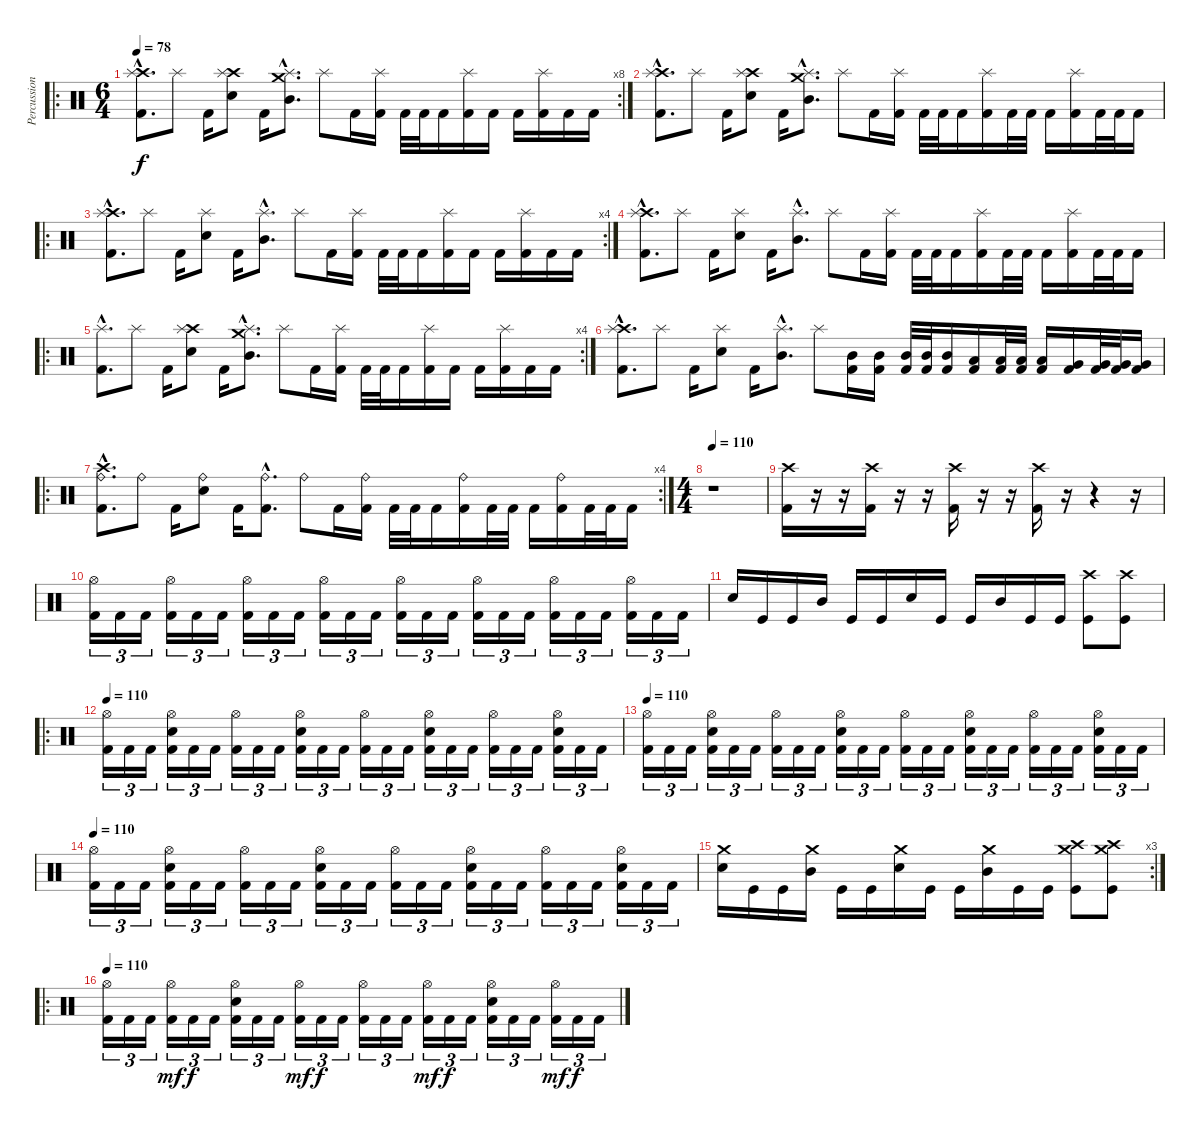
\track ("Percussion" "Percussion") {instrument percussion}
\staff {score}
\articulation defaults
\ro
\rc 8
\ts (6 4)
\tempo 78
\clef neutral
\ks c
("Crash high (hit)"{hac} "Splash (hit)"{hac} "Kick (hit) 2"{hac}).8{d dy f} "Splash (hit)".8 "Kick (hit) 2".16 ("Crash high (hit)" "Splash (hit)" "Electric Snare (hit)").8 "Kick (hit) 2".16 ("Crash medium (hit)"{hac} "Splash (hit)"{hac} "Mid Tom (hit)"{hac}).8{d} "Splash (hit)".8 "Kick (hit) 2".16 ("Splash (hit)" "Kick (hit) 2").16 "Kick (hit) 2".32 "Kick (hit) 2".32 "Kick (hit) 2".16 ("Splash (hit)" "Kick (hit) 2").16 "Kick (hit) 2".16 "Kick (hit) 2".16 ("Splash (hit)" "Kick (hit) 2").16 "Kick (hit) 2".16 "Kick (hit) 2".16 |
("Crash high (hit)"{hac} "Splash (hit)"{hac} "Kick (hit) 2"{hac}).8{d} "Splash (hit)".8 "Kick (hit) 2".16 ("Crash high (hit)" "Splash (hit)" "Electric Snare (hit)").8 "Kick (hit) 2".16 ("Crash medium (hit)"{hac} "Splash (hit)"{hac} "Mid Tom (hit)"{hac}).8{d} "Splash (hit)".8 "Kick (hit) 2".16 ("Splash (hit)" "Kick (hit) 2").16 "Kick (hit) 2".32 "Kick (hit) 2".32 "Kick (hit) 2".16 ("Splash (hit)" "Kick (hit) 2").16 "Kick (hit) 2".32 "Kick (hit) 2".32 "Kick (hit) 2".16 ("Splash (hit)" "Kick (hit) 2").16 "Kick (hit) 2".32 "Kick (hit) 2".32 "Kick (hit) 2".16 |
\ro
\rc 4
("Crash high (hit)"{hac} "Splash (hit)"{hac} "Kick (hit) 2"{hac}).8{d} "Splash (hit)".8 "Kick (hit) 2".16 ("Splash (hit)" "Electric Snare (hit)").8 "Kick (hit) 2".16 ("Splash (hit)"{hac} "Mid Tom (hit)"{hac}).8{d} "Splash (hit)".8 "Kick (hit) 2".16 ("Splash (hit)" "Kick (hit) 2").16 "Kick (hit) 2".32 "Kick (hit) 2".32 "Kick (hit) 2".16 ("Splash (hit)" "Kick (hit) 2").16 "Kick (hit) 2".16 "Kick (hit) 2".16 ("Splash (hit)" "Kick (hit) 2").16 "Kick (hit) 2".16 "Kick (hit) 2".16 |
("Crash high (hit)"{hac} "Splash (hit)"{hac} "Kick (hit) 2"{hac}).8{d} "Splash (hit)".8 "Kick (hit) 2".16 ("Splash (hit)" "Electric Snare (hit)").8 "Kick (hit) 2".16 ("Splash (hit)"{hac} "Mid Tom (hit)"{hac}).8{d} "Splash (hit)".8 "Kick (hit) 2".16 ("Splash (hit)" "Kick (hit) 2").16 "Kick (hit) 2".32 "Kick (hit) 2".32 "Kick (hit) 2".16 ("Splash (hit)" "Kick (hit) 2").16 "Kick (hit) 2".32 "Kick (hit) 2".32 "Kick (hit) 2".16 ("Splash (hit)" "Kick (hit) 2").16 "Kick (hit) 2".32 "Kick (hit) 2".32 "Kick (hit) 2".16 |
\ro
\rc 4
("Splash (hit)"{hac} "Kick (hit) 2"{hac}).8{d} "Splash (hit)".8 "Kick (hit) 2".16 ("Crash high (hit)" "Splash (hit)" "Electric Snare (hit)").8 "Kick (hit) 2".16 ("Crash medium (hit)"{hac} "Splash (hit)"{hac} "Mid Tom (hit)"{hac}).8{d} "Splash (hit)".8 "Kick (hit) 2".16 ("Splash (hit)" "Kick (hit) 2").16 "Kick (hit) 2".32 "Kick (hit) 2".32 "Kick (hit) 2".16 ("Splash (hit)" "Kick (hit) 2").16 "Kick (hit) 2".16 "Kick (hit) 2".16 ("Splash (hit)" "Kick (hit) 2").16 "Kick (hit) 2".16 "Kick (hit) 2".16 |
("Crash high (hit)"{hac} "Splash (hit)"{hac} "Kick (hit) 2"{hac}).8{d} "Splash (hit)".8 "Kick (hit) 2".16 ("Splash (hit)" "Electric Snare (hit)").8 "Kick (hit) 2".16 ("Splash (hit)"{hac} "Mid Tom (hit)"{hac}).8{d} "Splash (hit)".8 ("Mid Tom (hit)" "Kick (hit) 2").16 ("Mid Tom (hit)" "Kick (hit) 2").16 ("Mid Tom (hit)" "Kick (hit) 2").32 ("Mid Tom (hit)" "Kick (hit) 2").32 ("Mid Tom (hit)" "Kick (hit) 2").16 ("Low Tom (hit)" "Kick (hit) 2").16 ("Low Tom (hit)" "Kick (hit) 2").32 ("Low Tom (hit)" "Kick (hit) 2").32 ("Low Tom (hit)" "Kick (hit) 2").16 ("Very Low Tom (hit)" "Kick (hit) 2").16 ("Very Low Tom (hit)" "Kick (hit) 2").32 ("Very Low Tom (hit)" "Kick (hit) 2").32 ("Very Low Tom (hit)" "Kick (hit) 2").16 |
\ro
\rc 4
("Crash high (hit)"{hac} "Ride (bell)"{hac} "Kick (hit) 2"{hac}).8{d} "Ride (bell)".8 "Kick (hit) 2".16 ("Ride (bell)" "Electric Snare (hit)").8 "Kick (hit) 2".16 ("Ride (bell)"{hac} "Kick (hit) 2"{hac}).8{d} "Ride (bell)".8 "Kick (hit) 2".16 ("Ride (bell)" "Kick (hit) 2").16 "Kick (hit) 2".32 "Kick (hit) 2".32 "Kick (hit) 2".16 ("Ride (bell)" "Kick (hit) 2").16 "Kick (hit) 2".32 "Kick (hit) 2".32 "Kick (hit) 2".16 ("Ride (bell)" "Kick (hit) 2").16 "Kick (hit) 2".32 "Kick (hit) 2".32 "Kick (hit) 2".16 |
\ts (4 4)
\tempo 110
r.1 |
("Crash high (hit)" "Kick (hit) 2").16 r.16 r.16 ("Crash high (hit)" "Kick (hit) 2").16 r.16 r.16 ("Crash high (hit)" "Kick (hit) 2").16 r.16 r.16 ("Crash high (hit)" "Kick (hit) 2").16 r.16 r.4 r.16 |
("Hi-Hat (open)" "Kick (hit) 2").16{tu (3 2)} "Kick (hit) 2".16{tu (3 2)} "Kick (hit) 2".16{tu (3 2)} ("Hi-Hat (open)" "Kick (hit) 2").16{tu (3 2)} "Kick (hit) 2".16{tu (3 2)} "Kick (hit) 2".16{tu (3 2)} ("Hi-Hat (open)" "Kick (hit) 2").16{tu (3 2)} "Kick (hit) 2".16{tu (3 2)} "Kick (hit) 2".16{tu (3 2)} ("Hi-Hat (open)" "Kick (hit) 2").16{tu (3 2)} "Kick (hit) 2".16{tu (3 2)} "Kick (hit) 2".16{tu (3 2)} ("Hi-Hat (open)" "Kick (hit) 2").16{tu (3 2)} "Kick (hit) 2".16{tu (3 2)} "Kick (hit) 2".16{tu (3 2)} ("Hi-Hat (open)" "Kick (hit) 2").16{tu (3 2)} "Kick (hit) 2".16{tu (3 2)} "Kick (hit) 2".16{tu (3 2)} ("Hi-Hat (open)" "Kick (hit) 2").16{tu (3 2)} "Kick (hit) 2".16{tu (3 2)} "Kick (hit) 2".16{tu (3 2)} ("Hi-Hat (open)" "Kick (hit) 2").16{tu (3 2)} "Kick (hit) 2".16{tu (3 2)} "Kick (hit) 2".16{tu (3 2)} |
"Electric Snare (hit)".16 "Kick (hit)".16 "Kick (hit)".16 "Mid Tom (hit)".16 "Kick (hit)".16 "Kick (hit)".16 "Electric Snare (hit)".16 "Kick (hit)".16 "Kick (hit)".16 "Mid Tom (hit)".16 "Kick (hit)".16 "Kick (hit)".16 ("Crash high (hit)" "Kick (hit)").8 ("Crash high (hit)" "Kick (hit)").8 |
\ro
\tempo 110
("Hi-Hat (open)" "Kick (hit) 2").16{tu (3 2)} "Kick (hit) 2".16{tu (3 2)} "Kick (hit) 2".16{tu (3 2)} ("Hi-Hat (open)" "Electric Snare (hit)" "Kick (hit) 2").16{tu (3 2)} "Kick (hit) 2".16{tu (3 2)} "Kick (hit) 2".16{tu (3 2)} ("Hi-Hat (open)" "Kick (hit) 2").16{tu (3 2)} "Kick (hit) 2".16{tu (3 2)} "Kick (hit) 2".16{tu (3 2)} ("Hi-Hat (open)" "Electric Snare (hit)" "Kick (hit) 2").16{tu (3 2)} "Kick (hit) 2".16{tu (3 2)} "Kick (hit) 2".16{tu (3 2)} ("Hi-Hat (open)" "Kick (hit) 2").16{tu (3 2)} "Kick (hit) 2".16{tu (3 2)} "Kick (hit) 2".16{tu (3 2)} ("Hi-Hat (open)" "Electric Snare (hit)" "Kick (hit) 2").16{tu (3 2)} "Kick (hit) 2".16{tu (3 2)} "Kick (hit) 2".16{tu (3 2)} ("Hi-Hat (open)" "Kick (hit) 2").16{tu (3 2)} "Kick (hit) 2".16{tu (3 2)} "Kick (hit) 2".16{tu (3 2)} ("Hi-Hat (open)" "Electric Snare (hit)" "Kick (hit) 2").16{tu (3 2)} "Kick (hit) 2".16{tu (3 2)} "Kick (hit) 2".16{tu (3 2)} |
\tempo 110
("Hi-Hat (open)" "Kick (hit) 2").16{tu (3 2)} "Kick (hit) 2".16{tu (3 2)} "Kick (hit) 2".16{tu (3 2)} ("Hi-Hat (open)" "Electric Snare (hit)" "Kick (hit) 2").16{tu (3 2)} "Kick (hit) 2".16{tu (3 2)} "Kick (hit) 2".16{tu (3 2)} ("Hi-Hat (open)" "Kick (hit) 2").16{tu (3 2)} "Kick (hit) 2".16{tu (3 2)} "Kick (hit) 2".16{tu (3 2)} ("Hi-Hat (open)" "Electric Snare (hit)" "Kick (hit) 2").16{tu (3 2)} "Kick (hit) 2".16{tu (3 2)} "Kick (hit) 2".16{tu (3 2)} ("Hi-Hat (open)" "Kick (hit) 2").16{tu (3 2)} "Kick (hit) 2".16{tu (3 2)} "Kick (hit) 2".16{tu (3 2)} ("Hi-Hat (open)" "Electric Snare (hit)" "Kick (hit) 2").16{tu (3 2)} "Kick (hit) 2".16{tu (3 2)} "Kick (hit) 2".16{tu (3 2)} ("Hi-Hat (open)" "Kick (hit) 2").16{tu (3 2)} "Kick (hit) 2".16{tu (3 2)} "Kick (hit) 2".16{tu (3 2)} ("Hi-Hat (open)" "Electric Snare (hit)" "Kick (hit) 2").16{tu (3 2)} "Kick (hit) 2".16{tu (3 2)} "Kick (hit) 2".16{tu (3 2)} |
\tempo 110
("Hi-Hat (open)" "Kick (hit) 2").16{tu (3 2)} "Kick (hit) 2".16{tu (3 2)} "Kick (hit) 2".16{tu (3 2)} ("Hi-Hat (open)" "Electric Snare (hit)" "Kick (hit) 2").16{tu (3 2)} "Kick (hit) 2".16{tu (3 2)} "Kick (hit) 2".16{tu (3 2)} ("Hi-Hat (open)" "Kick (hit) 2").16{tu (3 2)} "Kick (hit) 2".16{tu (3 2)} "Kick (hit) 2".16{tu (3 2)} ("Hi-Hat (open)" "Electric Snare (hit)" "Kick (hit) 2").16{tu (3 2)} "Kick (hit) 2".16{tu (3 2)} "Kick (hit) 2".16{tu (3 2)} ("Hi-Hat (open)" "Kick (hit) 2").16{tu (3 2)} "Kick (hit) 2".16{tu (3 2)} "Kick (hit) 2".16{tu (3 2)} ("Hi-Hat (open)" "Electric Snare (hit)" "Kick (hit) 2").16{tu (3 2)} "Kick (hit) 2".16{tu (3 2)} "Kick (hit) 2".16{tu (3 2)} ("Hi-Hat (open)" "Kick (hit) 2").16{tu (3 2)} "Kick (hit) 2".16{tu (3 2)} "Kick (hit) 2".16{tu (3 2)} ("Hi-Hat (open)" "Electric Snare (hit)" "Kick (hit) 2").16{tu (3 2)} "Kick (hit) 2".16{tu (3 2)} "Kick (hit) 2".16{tu (3 2)} |
\rc 3
("Crash medium (hit)" "Electric Snare (hit)").16 "Kick (hit)".16 "Kick (hit)".16 ("Crash medium (hit)" "Mid Tom (hit)").16 "Kick (hit)".16 "Kick (hit)".16 ("Crash medium (hit)" "Electric Snare (hit)").16 "Kick (hit)".16 "Kick (hit)".16 ("Crash medium (hit)" "Mid Tom (hit)").16 "Kick (hit)".16 "Kick (hit)".16 ("Crash medium (hit)" "Crash high (hit)" "Kick (hit)").8 ("Crash medium (hit)" "Crash high (hit)" "Kick (hit)").8 |
\ro
\tempo 110
("Hi-Hat (open)" "Kick (hit) 2").16{tu (3 2) volume 11} "Kick (hit) 2".16{tu (3 2)} "Kick (hit) 2".16{tu (3 2)} ("Hi-Hat (open)" "Kick (hit) 2").16{tu (3 2) dy mf} "Kick (hit) 2".16{tu (3 2) dy f} "Kick (hit) 2".16{tu (3 2)} ("Hi-Hat (open)" "Electric Snare (hit)" "Kick (hit) 2").16{tu (3 2)} "Kick (hit) 2".16{tu (3 2)} "Kick (hit) 2".16{tu (3 2)} ("Hi-Hat (open)" "Kick (hit) 2").16{tu (3 2) dy mf} "Kick (hit) 2".16{tu (3 2) dy f} "Kick (hit) 2".16{tu (3 2)} ("Hi-Hat (open)" "Kick (hit) 2").16{tu (3 2)} "Kick (hit) 2".16{tu (3 2)} "Kick (hit) 2".16{tu (3 2)} ("Hi-Hat (open)" "Kick (hit) 2").16{tu (3 2) dy mf} "Kick (hit) 2".16{tu (3 2) dy f} "Kick (hit) 2".16{tu (3 2)} ("Hi-Hat (open)" "Electric Snare (hit)" "Kick (hit) 2").16{tu (3 2)} "Kick (hit) 2".16{tu (3 2)} "Kick (hit) 2".16{tu (3 2)} ("Hi-Hat (open)" "Kick (hit) 2").16{tu (3 2) dy mf} "Kick (hit) 2".16{tu (3 2) dy f} "Kick (hit) 2".16{tu (3 2)}
